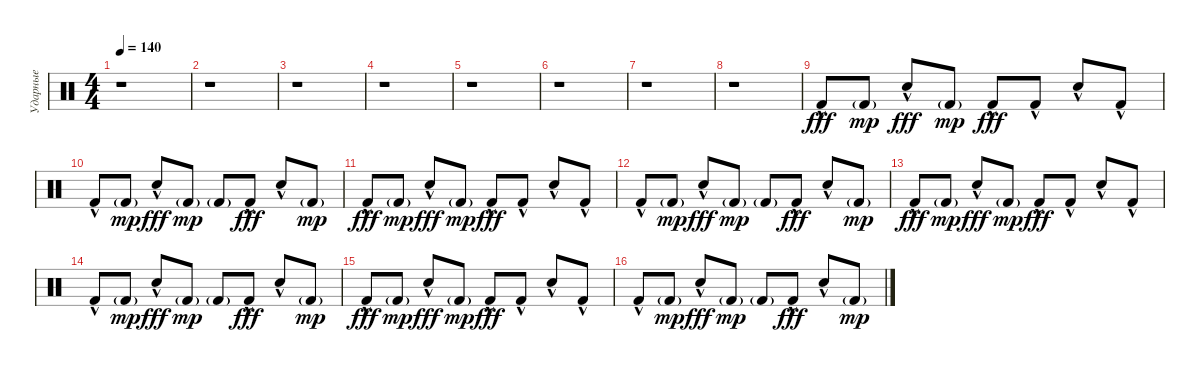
\track ("Ударные" "Ударные") {instrument percussion}
\staff {score}
\articulation defaults
\ts (4 4)
\tempo 140
\clef neutral
\ks c
r.1{dy mp} |
r.1 |
r.1 |
r.1 |
r.1 |
r.1 |
r.1 |
r.1 |
"Kick (hit) 2"{hac}.8{dy fff} "Kick (hit) 2"{g}.8{dy mp} "Snare (hit) 2"{hac}.8{dy fff} "Kick (hit) 2"{g}.8{dy mp} "Kick (hit) 2"{hac}.8{dy fff} "Kick (hit) 2"{hac}.8 "Snare (hit) 2"{hac}.8 "Kick (hit) 2"{hac}.8 |
"Kick (hit) 2"{hac}.8 "Kick (hit) 2"{g}.8{dy mp} "Snare (hit) 2"{hac}.8{dy fff} "Kick (hit) 2"{g}.8{dy mp} "Kick (hit) 2"{g}.8 "Kick (hit) 2"{hac}.8{dy fff} "Snare (hit) 2"{hac}.8 "Kick (hit) 2"{g}.8{dy mp} |
"Kick (hit) 2"{hac}.8{dy fff} "Kick (hit) 2"{g}.8{dy mp} "Snare (hit) 2"{hac}.8{dy fff} "Kick (hit) 2"{g}.8{dy mp} "Kick (hit) 2"{hac}.8{dy fff} "Kick (hit) 2"{hac}.8 "Snare (hit) 2"{hac}.8 "Kick (hit) 2"{hac}.8 |
"Kick (hit) 2"{hac}.8 "Kick (hit) 2"{g}.8{dy mp} "Snare (hit) 2"{hac}.8{dy fff} "Kick (hit) 2"{g}.8{dy mp} "Kick (hit) 2"{g}.8 "Kick (hit) 2"{hac}.8{dy fff} "Snare (hit) 2"{hac}.8 "Kick (hit) 2"{g}.8{dy mp} |
"Kick (hit) 2"{hac}.8{dy fff} "Kick (hit) 2"{g}.8{dy mp} "Snare (hit) 2"{hac}.8{dy fff} "Kick (hit) 2"{g}.8{dy mp} "Kick (hit) 2"{hac}.8{dy fff} "Kick (hit) 2"{hac}.8 "Snare (hit) 2"{hac}.8 "Kick (hit) 2"{hac}.8 |
"Kick (hit) 2"{hac}.8 "Kick (hit) 2"{g}.8{dy mp} "Snare (hit) 2"{hac}.8{dy fff} "Kick (hit) 2"{g}.8{dy mp} "Kick (hit) 2"{g}.8 "Kick (hit) 2"{hac}.8{dy fff} "Snare (hit) 2"{hac}.8 "Kick (hit) 2"{g}.8{dy mp} |
"Kick (hit) 2"{hac}.8{dy fff} "Kick (hit) 2"{g}.8{dy mp} "Snare (hit) 2"{hac}.8{dy fff} "Kick (hit) 2"{g}.8{dy mp} "Kick (hit) 2"{hac}.8{dy fff} "Kick (hit) 2"{hac}.8 "Snare (hit) 2"{hac}.8 "Kick (hit) 2"{hac}.8 |
"Kick (hit) 2"{hac}.8 "Kick (hit) 2"{g}.8{dy mp} "Snare (hit) 2"{hac}.8{dy fff} "Kick (hit) 2"{g}.8{dy mp} "Kick (hit) 2"{g}.8 "Kick (hit) 2"{hac}.8{dy fff} "Snare (hit) 2"{hac}.8 "Kick (hit) 2"{g}.8{dy mp}
